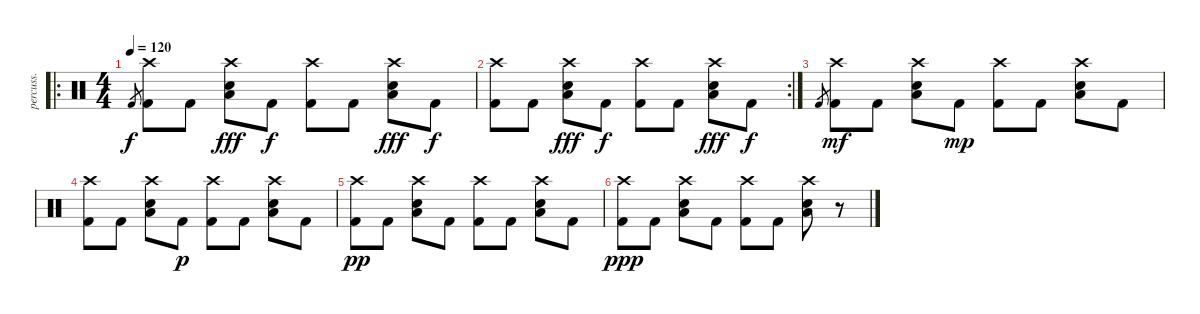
\track ("percuss." "percuss.") {instrument percussion}
\staff {score}
\articulation defaults
\ro
\ts (4 4)
\tempo 120
\clef neutral
\ks c "Kick (hit) 2".8{gr dy f}
("Crash high (hit)" "Kick (hit) 2").8 "Kick (hit) 2".8 ("Crash high (hit)" "Low Floor Tom (hit)" "Electric Snare (hit)").8{dy fff} "Kick (hit) 2".8{dy f} ("Crash high (hit)" "Kick (hit) 2").8 "Kick (hit) 2".8 ("Crash high (hit)" "Low Floor Tom (hit)" "Electric Snare (hit)").8{dy fff} "Kick (hit) 2".8{dy f} |
\rc 2
("Crash high (hit)" "Kick (hit) 2").8 "Kick (hit) 2".8 ("Crash high (hit)" "Low Floor Tom (hit)" "Electric Snare (hit)").8{dy fff} "Kick (hit) 2".8{dy f} ("Crash high (hit)" "Kick (hit) 2").8 "Kick (hit) 2".8 ("Crash high (hit)" "Low Floor Tom (hit)" "Electric Snare (hit)").8{dy fff} "Kick (hit) 2".8{dy f} |
"Kick (hit) 2".8{gr} ("Crash high (hit)" "Kick (hit) 2").8{dy mf} "Kick (hit) 2".8 ("Crash high (hit)" "Low Floor Tom (hit)" "Electric Snare (hit)").8 "Kick (hit) 2".8{dy mp} ("Crash high (hit)" "Kick (hit) 2").8 "Kick (hit) 2".8 ("Crash high (hit)" "Low Floor Tom (hit)" "Electric Snare (hit)").8 "Kick (hit) 2".8 |
("Crash high (hit)" "Kick (hit) 2").8 "Kick (hit) 2".8 ("Crash high (hit)" "Low Floor Tom (hit)" "Electric Snare (hit)").8 "Kick (hit) 2".8{dy p} ("Crash high (hit)" "Kick (hit) 2").8 "Kick (hit) 2".8 ("Crash high (hit)" "Low Floor Tom (hit)" "Electric Snare (hit)").8 "Kick (hit) 2".8 |
("Crash high (hit)" "Kick (hit) 2").8{dy pp} "Kick (hit) 2".8 ("Crash high (hit)" "Low Floor Tom (hit)" "Electric Snare (hit)").8 "Kick (hit) 2".8 ("Crash high (hit)" "Kick (hit) 2").8 "Kick (hit) 2".8 ("Crash high (hit)" "Low Floor Tom (hit)" "Electric Snare (hit)").8 "Kick (hit) 2".8 |
("Crash high (hit)" "Kick (hit) 2").8{dy ppp} "Kick (hit) 2".8 ("Crash high (hit)" "Low Floor Tom (hit)" "Electric Snare (hit)").8 "Kick (hit) 2".8 ("Crash high (hit)" "Kick (hit) 2").8 "Kick (hit) 2".8 ("Crash high (hit)" "Low Floor Tom (hit)" "Electric Snare (hit)").8 r.8
